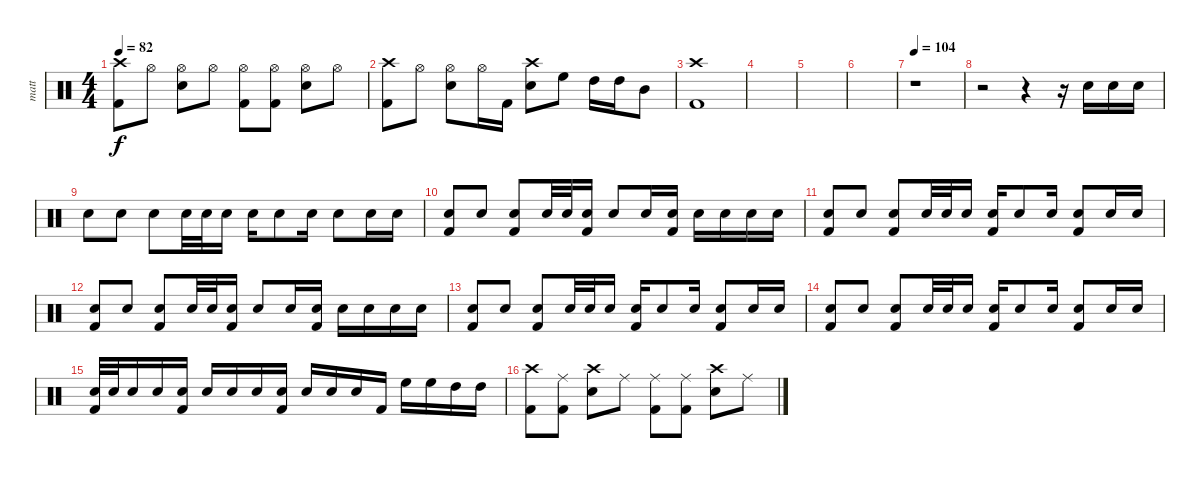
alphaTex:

\track ("matt" "matt") {instrument percussion}
\staff {score}
\articulation defaults
\ts (4 4)
\tempo 82
\clef neutral
\ks c
("Crash high (hit)" "Kick (hit) 2").8{dy f} "Hi-Hat (open)".8 ("Hi-Hat (open)" "Electric Snare (hit)").8 "Hi-Hat (open)".8 ("Hi-Hat (open)" "Kick (hit) 2").8 ("Hi-Hat (open)" "Kick (hit) 2").8 ("Hi-Hat (open)" "Electric Snare (hit)").8 "Hi-Hat (open)".8 |
("Crash high (hit)" "Kick (hit) 2").8 "Hi-Hat (open)".8 ("Hi-Hat (open)" "Electric Snare (hit)").8 "Hi-Hat (open)".16 "Kick (hit) 2".16 ("Crash high (hit)" "Electric Snare (hit)").8 "High Floor Tom (hit)".8 "High Tom (hit)".16 "High Tom (hit)".16 "Mid Tom (hit)".8 |
("Crash high (hit)" "Kick (hit) 2").1 |
|
|
|
\tempo 104
r.1 |
r.2 r.4 r.16 "Electric Snare (hit)".16 "Electric Snare (hit)".16 "Electric Snare (hit)".16 |
"Electric Snare (hit)".8 "Electric Snare (hit)".8 "Electric Snare (hit)".8 "Electric Snare (hit)".32 "Electric Snare (hit)".32 "Electric Snare (hit)".16 "Electric Snare (hit)".16 "Electric Snare (hit)".8 "Electric Snare (hit)".16 "Electric Snare (hit)".8 "Electric Snare (hit)".16 "Electric Snare (hit)".16 |
("Electric Snare (hit)" "Kick (hit) 2").8 "Electric Snare (hit)".8 ("Electric Snare (hit)" "Kick (hit) 2").8 "Electric Snare (hit)".32 "Electric Snare (hit)".32 ("Electric Snare (hit)" "Kick (hit) 2").16 "Electric Snare (hit)".8 "Electric Snare (hit)".16 ("Electric Snare (hit)" "Kick (hit) 2").16 "Electric Snare (hit)".16 "Electric Snare (hit)".16 "Electric Snare (hit)".16 "Electric Snare (hit)".16 |
("Electric Snare (hit)" "Kick (hit) 2").8 "Electric Snare (hit)".8 ("Electric Snare (hit)" "Kick (hit) 2").8 "Electric Snare (hit)".32 "Electric Snare (hit)".32 "Electric Snare (hit)".16 ("Electric Snare (hit)" "Kick (hit) 2").16 "Electric Snare (hit)".8 "Electric Snare (hit)".16 ("Electric Snare (hit)" "Kick (hit) 2").8 "Electric Snare (hit)".16 "Electric Snare (hit)".16 |
("Electric Snare (hit)" "Kick (hit) 2").8 "Electric Snare (hit)".8 ("Electric Snare (hit)" "Kick (hit) 2").8 "Electric Snare (hit)".32 "Electric Snare (hit)".32 ("Electric Snare (hit)" "Kick (hit) 2").16 "Electric Snare (hit)".8 "Electric Snare (hit)".16 ("Electric Snare (hit)" "Kick (hit) 2").16 "Electric Snare (hit)".16 "Electric Snare (hit)".16 "Electric Snare (hit)".16 "Electric Snare (hit)".16 |
("Electric Snare (hit)" "Kick (hit) 2").8 "Electric Snare (hit)".8 ("Electric Snare (hit)" "Kick (hit) 2").8 "Electric Snare (hit)".32 "Electric Snare (hit)".32 "Electric Snare (hit)".16 ("Electric Snare (hit)" "Kick (hit) 2").16 "Electric Snare (hit)".8 "Electric Snare (hit)".16 ("Electric Snare (hit)" "Kick (hit) 2").8 "Electric Snare (hit)".16 "Electric Snare (hit)".16 |
("Electric Snare (hit)" "Kick (hit) 2").8 "Electric Snare (hit)".8 ("Electric Snare (hit)" "Kick (hit) 2").8 "Electric Snare (hit)".32 "Electric Snare (hit)".32 "Electric Snare (hit)".16 ("Electric Snare (hit)" "Kick (hit) 2").16 "Electric Snare (hit)".8 "Electric Snare (hit)".16 ("Electric Snare (hit)" "Kick (hit) 2").8 "Electric Snare (hit)".16 "Electric Snare (hit)".16 |
("Electric Snare (hit)" "Kick (hit) 2").32 "Electric Snare (hit)".32 "Electric Snare (hit)".16 "Electric Snare (hit)".16 ("Electric Snare (hit)" "Kick (hit) 2").16 "Electric Snare (hit)".16 "Electric Snare (hit)".16 "Electric Snare (hit)".16 ("Electric Snare (hit)" "Kick (hit) 2").16 "Electric Snare (hit)".16 "Electric Snare (hit)".16 "Electric Snare (hit)".16 "Kick (hit) 2".16 "High Floor Tom (hit)".16 "High Floor Tom (hit)".16 "High Tom (hit)".16 "High Tom (hit)".16 |
("Crash high (hit)" "Kick (hit) 2").8 ("Ride (middle)" "Kick (hit) 2").8 ("Crash high (hit)" "Electric Snare (hit)").8 "Ride (middle)".8 ("Ride (middle)" "Kick (hit) 2").8 ("Ride (middle)" "Kick (hit) 2").8 ("Crash high (hit)" "Electric Snare (hit)").8 "Ride (middle)".8
